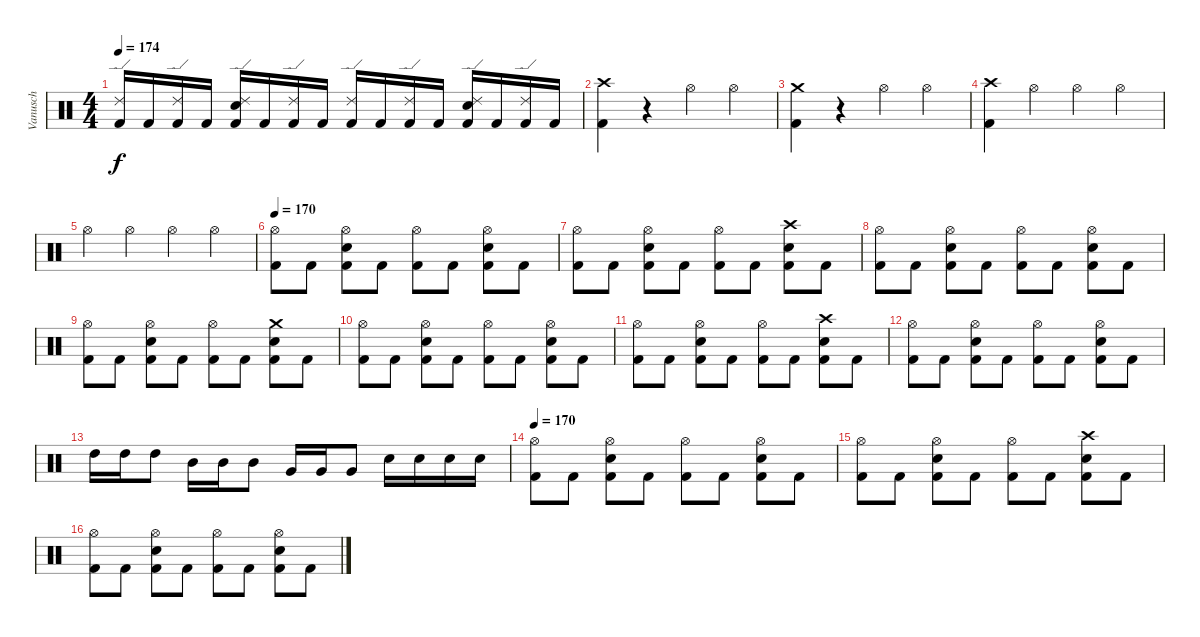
\track ("Vanusch" "Vanusch") {instrument percussion}
\staff {score}
\articulation defaults
\ts (4 4)
\tempo 174
\clef neutral
\ks c
("Ride (edge) 2" "Kick (hit) 2").16{dy f} "Kick (hit) 2".16 ("Ride (edge) 2" "Kick (hit) 2").16 "Kick (hit) 2".16 ("Ride (edge) 2" "Snare (hit) 2" "Kick (hit) 2").16 "Kick (hit) 2".16 ("Ride (edge) 2" "Kick (hit) 2").16 "Kick (hit) 2".16 ("Ride (edge) 2" "Kick (hit) 2").16 "Kick (hit) 2".16 ("Ride (edge) 2" "Kick (hit) 2").16 "Kick (hit) 2".16 ("Ride (edge) 2" "Snare (hit) 2" "Kick (hit) 2").16 "Kick (hit) 2".16 ("Ride (edge) 2" "Kick (hit) 2").16 "Kick (hit) 2".16 |
("Crash high (hit)" "Kick (hit) 2").4 r.4 "Hi-Hat (open)".4 "Hi-Hat (open)".4 |
("Crash medium (hit)" "Kick (hit) 2").4 r.4 "Hi-Hat (open)".4 "Hi-Hat (open)".4 |
("Crash high (hit)" "Kick (hit) 2").4 "Hi-Hat (open)".4 "Hi-Hat (open)".4 "Hi-Hat (open)".4 |
"Hi-Hat (open)".4 "Hi-Hat (open)".4 "Hi-Hat (open)".4 "Hi-Hat (open)".4 |
\tempo 170
("Hi-Hat (open)" "Kick (hit) 2").8 "Kick (hit) 2".8 ("Hi-Hat (open)" "Snare (hit) 2" "Kick (hit) 2").8 "Kick (hit) 2".8 ("Hi-Hat (open)" "Kick (hit) 2").8 "Kick (hit) 2".8 ("Hi-Hat (open)" "Snare (hit) 2" "Kick (hit) 2").8 "Kick (hit) 2".8 |
("Hi-Hat (open)" "Kick (hit) 2").8 "Kick (hit) 2".8 ("Hi-Hat (open)" "Snare (hit) 2" "Kick (hit) 2").8 "Kick (hit) 2".8 ("Hi-Hat (open)" "Kick (hit) 2").8 "Kick (hit) 2".8 ("Crash high (hit)" "Snare (hit) 2" "Kick (hit) 2").8 "Kick (hit) 2".8 |
("Hi-Hat (open)" "Kick (hit) 2").8 "Kick (hit) 2".8 ("Hi-Hat (open)" "Snare (hit) 2" "Kick (hit) 2").8 "Kick (hit) 2".8 ("Hi-Hat (open)" "Kick (hit) 2").8 "Kick (hit) 2".8 ("Hi-Hat (open)" "Snare (hit) 2" "Kick (hit) 2").8 "Kick (hit) 2".8 |
("Hi-Hat (open)" "Kick (hit) 2").8 "Kick (hit) 2".8 ("Hi-Hat (open)" "Snare (hit) 2" "Kick (hit) 2").8 "Kick (hit) 2".8 ("Hi-Hat (open)" "Kick (hit) 2").8 "Kick (hit) 2".8 ("Crash medium (hit)" "Snare (hit) 2" "Kick (hit) 2").8 "Kick (hit) 2".8 |
("Hi-Hat (open)" "Kick (hit) 2").8 "Kick (hit) 2".8 ("Hi-Hat (open)" "Snare (hit) 2" "Kick (hit) 2").8 "Kick (hit) 2".8 ("Hi-Hat (open)" "Kick (hit) 2").8 "Kick (hit) 2".8 ("Hi-Hat (open)" "Snare (hit) 2" "Kick (hit) 2").8 "Kick (hit) 2".8 |
("Hi-Hat (open)" "Kick (hit) 2").8 "Kick (hit) 2".8 ("Hi-Hat (open)" "Snare (hit) 2" "Kick (hit) 2").8 "Kick (hit) 2".8 ("Hi-Hat (open)" "Kick (hit) 2").8 "Kick (hit) 2".8 ("Crash high (hit)" "Snare (hit) 2" "Kick (hit) 2").8 "Kick (hit) 2".8 |
("Hi-Hat (open)" "Kick (hit) 2").8 "Kick (hit) 2".8 ("Hi-Hat (open)" "Snare (hit) 2" "Kick (hit) 2").8 "Kick (hit) 2".8 ("Hi-Hat (open)" "Kick (hit) 2").8 "Kick (hit) 2".8 ("Hi-Hat (open)" "Snare (hit) 2" "Kick (hit) 2").8 "Kick (hit) 2".8 |
"High Tom (hit)".16 "High Tom (hit)".16 "High Tom (hit)".8 "Mid Tom (hit)".16 "Mid Tom (hit)".16 "Mid Tom (hit)".8 "Very Low Tom (hit)".16 "Very Low Tom (hit)".16 "Very Low Tom (hit)".8 "Snare (hit) 2".16 "Snare (hit) 2".16 "Snare (hit) 2".16 "Snare (hit) 2".16 |
\tempo 170
("Hi-Hat (open)" "Kick (hit) 2").8 "Kick (hit) 2".8 ("Hi-Hat (open)" "Snare (hit) 2" "Kick (hit) 2").8 "Kick (hit) 2".8 ("Hi-Hat (open)" "Kick (hit) 2").8 "Kick (hit) 2".8 ("Hi-Hat (open)" "Snare (hit) 2" "Kick (hit) 2").8 "Kick (hit) 2".8 |
("Hi-Hat (open)" "Kick (hit) 2").8 "Kick (hit) 2".8 ("Hi-Hat (open)" "Snare (hit) 2" "Kick (hit) 2").8 "Kick (hit) 2".8 ("Hi-Hat (open)" "Kick (hit) 2").8 "Kick (hit) 2".8 ("Crash high (hit)" "Snare (hit) 2" "Kick (hit) 2").8 "Kick (hit) 2".8 |
("Hi-Hat (open)" "Kick (hit) 2").8 "Kick (hit) 2".8 ("Hi-Hat (open)" "Snare (hit) 2" "Kick (hit) 2").8 "Kick (hit) 2".8 ("Hi-Hat (open)" "Kick (hit) 2").8 "Kick (hit) 2".8 ("Hi-Hat (open)" "Snare (hit) 2" "Kick (hit) 2").8 "Kick (hit) 2".8
